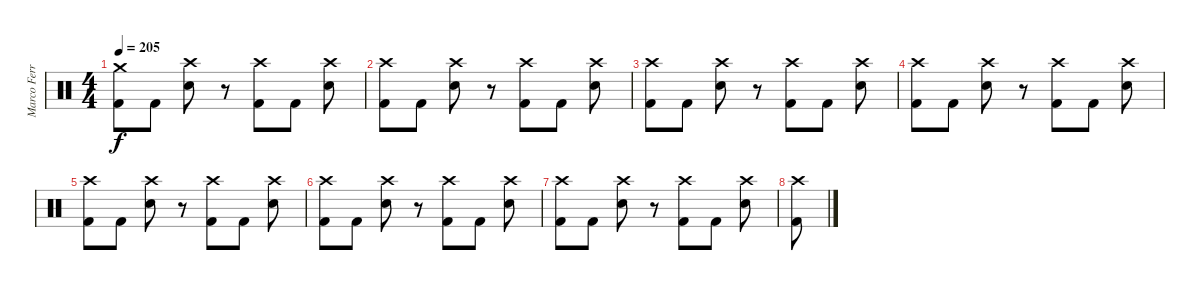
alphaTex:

\track ("Marco Ferro" "Marco Ferr") {instrument percussion}
\staff {score}
\articulation defaults
\ts (4 4)
\tempo 205
\clef neutral
\ks c
("Crash medium (hit)" "Kick (hit) 2").8{dy f} "Kick (hit) 2".8 ("Crash high (hit)" "Electric Snare (hit)").8 r.8 ("Crash high (hit)" "Kick (hit) 2").8 "Kick (hit) 2".8 ("Crash high (hit)" "Electric Snare (hit)").8 |
("Crash high (hit)" "Kick (hit) 2").8 "Kick (hit) 2".8 ("Crash high (hit)" "Electric Snare (hit)").8 r.8 ("Crash high (hit)" "Kick (hit) 2").8 "Kick (hit) 2".8 ("Crash high (hit)" "Electric Snare (hit)").8 |
("Crash high (hit)" "Kick (hit) 2").8 "Kick (hit) 2".8 ("Crash high (hit)" "Electric Snare (hit)").8 r.8 ("Crash high (hit)" "Kick (hit) 2").8 "Kick (hit) 2".8 ("Crash high (hit)" "Electric Snare (hit)").8 |
("Crash high (hit)" "Kick (hit) 2").8 "Kick (hit) 2".8 ("Crash high (hit)" "Electric Snare (hit)").8 r.8 ("Crash high (hit)" "Kick (hit) 2").8 "Kick (hit) 2".8 ("Crash high (hit)" "Electric Snare (hit)").8 |
("Crash high (hit)" "Kick (hit) 2").8 "Kick (hit) 2".8 ("Crash high (hit)" "Electric Snare (hit)").8 r.8 ("Crash high (hit)" "Kick (hit) 2").8 "Kick (hit) 2".8 ("Crash high (hit)" "Electric Snare (hit)").8 |
("Crash high (hit)" "Kick (hit) 2").8 "Kick (hit) 2".8 ("Crash high (hit)" "Electric Snare (hit)").8 r.8 ("Crash high (hit)" "Kick (hit) 2").8 "Kick (hit) 2".8 ("Crash high (hit)" "Electric Snare (hit)").8 |
("Crash high (hit)" "Kick (hit) 2").8 "Kick (hit) 2".8 ("Crash high (hit)" "Electric Snare (hit)").8 r.8 ("Crash high (hit)" "Kick (hit) 2").8 "Kick (hit) 2".8 ("Crash high (hit)" "Electric Snare (hit)").8 |
("Crash high (hit)" "Kick (hit) 2").8
